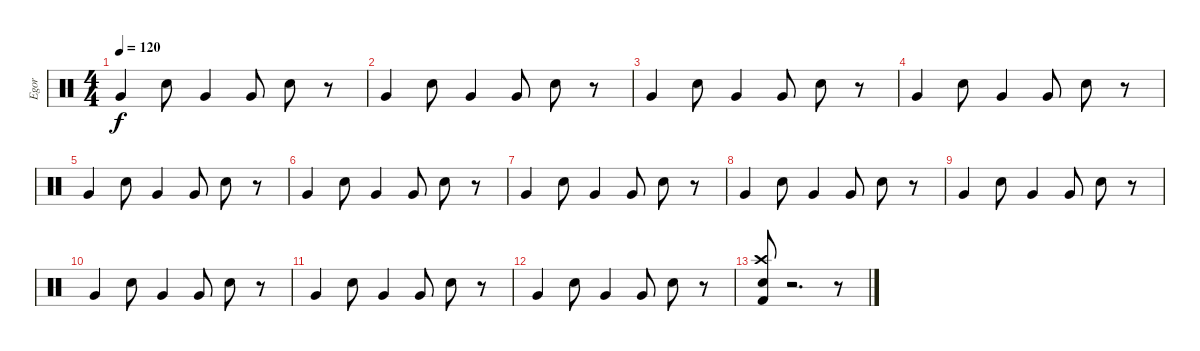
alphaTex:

\track ("Egor " "Egor ") {instrument percussion}
\staff {score}
\articulation defaults
\ts (4 4)
\tempo 120
\clef neutral
\ks c "Very Low Tom (hit)".4{dy f} "Electric Snare (hit)".8 "Very Low Tom (hit)".4 "Very Low Tom (hit)".8 "Electric Snare (hit)".8
r.8 |
"Very Low Tom (hit)".4 "Electric Snare (hit)".8 "Very Low Tom (hit)".4 "Very Low Tom (hit)".8 "Electric Snare (hit)".8 r.8 |
"Very Low Tom (hit)".4 "Electric Snare (hit)".8 "Very Low Tom (hit)".4 "Very Low Tom (hit)".8 "Electric Snare (hit)".8 r.8 |
"Very Low Tom (hit)".4 "Electric Snare (hit)".8 "Very Low Tom (hit)".4 "Very Low Tom (hit)".8 "Electric Snare (hit)".8 r.8 |
"Very Low Tom (hit)".4 "Electric Snare (hit)".8 "Very Low Tom (hit)".4 "Very Low Tom (hit)".8 "Electric Snare (hit)".8 r.8 |
"Very Low Tom (hit)".4 "Electric Snare (hit)".8 "Very Low Tom (hit)".4 "Very Low Tom (hit)".8 "Electric Snare (hit)".8 r.8 |
"Very Low Tom (hit)".4 "Electric Snare (hit)".8 "Very Low Tom (hit)".4 "Very Low Tom (hit)".8 "Electric Snare (hit)".8 r.8 |
"Very Low Tom (hit)".4 "Electric Snare (hit)".8 "Very Low Tom (hit)".4 "Very Low Tom (hit)".8 "Electric Snare (hit)".8 r.8 |
"Very Low Tom (hit)".4 "Electric Snare (hit)".8 "Very Low Tom (hit)".4 "Very Low Tom (hit)".8 "Electric Snare (hit)".8 r.8 |
"Very Low Tom (hit)".4 "Electric Snare (hit)".8 "Very Low Tom (hit)".4 "Very Low Tom (hit)".8 "Electric Snare (hit)".8 r.8 |
"Very Low Tom (hit)".4 "Electric Snare (hit)".8 "Very Low Tom (hit)".4 "Very Low Tom (hit)".8 "Electric Snare (hit)".8 r.8 |
"Very Low Tom (hit)".4 "Electric Snare (hit)".8 "Very Low Tom (hit)".4 "Very Low Tom (hit)".8 "Electric Snare (hit)".8 r.8 |
("Crash high (hit)" "Electric Snare (hit)" "Kick (hit) 2").8 r.2{d} r.8
